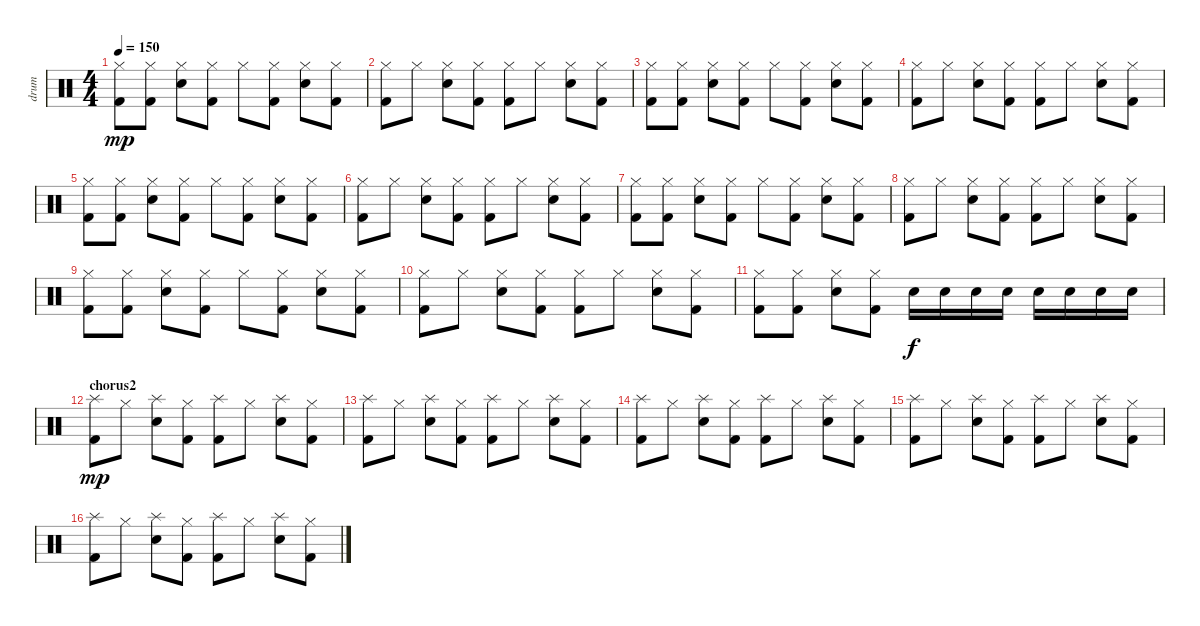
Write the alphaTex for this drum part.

\track ("drum" "drum") {instrument percussion}
\staff {score}
\articulation defaults
\ts (4 4)
\tempo 150
\clef neutral
\ks c
("Hi-Hat (closed)" "Kick (hit) 2").8{dy mp} ("Hi-Hat (closed)" "Kick (hit) 2").8 ("Hi-Hat (closed)" "Electric Snare (hit)").8 ("Hi-Hat (closed)" "Kick (hit) 2").8 "Hi-Hat (closed)".8 ("Hi-Hat (closed)" "Kick (hit) 2").8 ("Hi-Hat (closed)" "Electric Snare (hit)").8 ("Hi-Hat (closed)" "Kick (hit) 2").8 |
("Hi-Hat (closed)" "Kick (hit) 2").8 "Hi-Hat (closed)".8 ("Hi-Hat (closed)" "Electric Snare (hit)").8 ("Hi-Hat (closed)" "Kick (hit) 2").8 ("Hi-Hat (closed)" "Kick (hit) 2").8 "Hi-Hat (closed)".8 ("Hi-Hat (closed)" "Electric Snare (hit)").8 ("Hi-Hat (closed)" "Kick (hit) 2").8 |
("Hi-Hat (closed)" "Kick (hit) 2").8 ("Hi-Hat (closed)" "Kick (hit) 2").8 ("Hi-Hat (closed)" "Electric Snare (hit)").8 ("Hi-Hat (closed)" "Kick (hit) 2").8 "Hi-Hat (closed)".8 ("Hi-Hat (closed)" "Kick (hit) 2").8 ("Hi-Hat (closed)" "Electric Snare (hit)").8 ("Hi-Hat (closed)" "Kick (hit) 2").8 |
("Hi-Hat (closed)" "Kick (hit) 2").8 "Hi-Hat (closed)".8 ("Hi-Hat (closed)" "Electric Snare (hit)").8 ("Hi-Hat (closed)" "Kick (hit) 2").8 ("Hi-Hat (closed)" "Kick (hit) 2").8 "Hi-Hat (closed)".8 ("Hi-Hat (closed)" "Electric Snare (hit)").8 ("Hi-Hat (closed)" "Kick (hit) 2").8 |
("Hi-Hat (closed)" "Kick (hit) 2").8 ("Hi-Hat (closed)" "Kick (hit) 2").8 ("Hi-Hat (closed)" "Electric Snare (hit)").8 ("Hi-Hat (closed)" "Kick (hit) 2").8 "Hi-Hat (closed)".8 ("Hi-Hat (closed)" "Kick (hit) 2").8 ("Hi-Hat (closed)" "Electric Snare (hit)").8 ("Hi-Hat (closed)" "Kick (hit) 2").8 |
("Hi-Hat (closed)" "Kick (hit) 2").8 "Hi-Hat (closed)".8 ("Hi-Hat (closed)" "Electric Snare (hit)").8 ("Hi-Hat (closed)" "Kick (hit) 2").8 ("Hi-Hat (closed)" "Kick (hit) 2").8 "Hi-Hat (closed)".8 ("Hi-Hat (closed)" "Electric Snare (hit)").8 ("Hi-Hat (closed)" "Kick (hit) 2").8 |
("Hi-Hat (closed)" "Kick (hit) 2").8 ("Hi-Hat (closed)" "Kick (hit) 2").8 ("Hi-Hat (closed)" "Electric Snare (hit)").8 ("Hi-Hat (closed)" "Kick (hit) 2").8 "Hi-Hat (closed)".8 ("Hi-Hat (closed)" "Kick (hit) 2").8 ("Hi-Hat (closed)" "Electric Snare (hit)").8 ("Hi-Hat (closed)" "Kick (hit) 2").8 |
("Hi-Hat (closed)" "Kick (hit) 2").8 "Hi-Hat (closed)".8 ("Hi-Hat (closed)" "Electric Snare (hit)").8 ("Hi-Hat (closed)" "Kick (hit) 2").8 ("Hi-Hat (closed)" "Kick (hit) 2").8 "Hi-Hat (closed)".8 ("Hi-Hat (closed)" "Electric Snare (hit)").8 ("Hi-Hat (closed)" "Kick (hit) 2").8 |
("Hi-Hat (closed)" "Kick (hit) 2").8 ("Hi-Hat (closed)" "Kick (hit) 2").8 ("Hi-Hat (closed)" "Electric Snare (hit)").8 ("Hi-Hat (closed)" "Kick (hit) 2").8 "Hi-Hat (closed)".8 ("Hi-Hat (closed)" "Kick (hit) 2").8 ("Hi-Hat (closed)" "Electric Snare (hit)").8 ("Hi-Hat (closed)" "Kick (hit) 2").8 |
("Hi-Hat (closed)" "Kick (hit) 2").8 "Hi-Hat (closed)".8 ("Hi-Hat (closed)" "Electric Snare (hit)").8 ("Hi-Hat (closed)" "Kick (hit) 2").8 ("Hi-Hat (closed)" "Kick (hit) 2").8 "Hi-Hat (closed)".8 ("Hi-Hat (closed)" "Electric Snare (hit)").8 ("Hi-Hat (closed)" "Kick (hit) 2").8 |
("Hi-Hat (closed)" "Kick (hit) 2").8 ("Hi-Hat (closed)" "Kick (hit) 2").8 ("Hi-Hat (closed)" "Electric Snare (hit)").8 ("Hi-Hat (closed)" "Kick (hit) 2").8 "Electric Snare (hit)".16{dy f} "Electric Snare (hit)".16 "Electric Snare (hit)".16 "Electric Snare (hit)".16 "Electric Snare (hit)".16 "Electric Snare (hit)".16 "Electric Snare (hit)".16 "Electric Snare (hit)".16 |
\section ("" "chorus2")
("Splash (hit)" "Kick (hit) 2").8{dy mp} "Hi-Hat (closed)".8 ("Splash (hit)" "Electric Snare (hit)").8 ("Hi-Hat (closed)" "Kick (hit) 2").8 ("Splash (hit)" "Kick (hit) 2").8 "Hi-Hat (closed)".8 ("Splash (hit)" "Electric Snare (hit)").8 ("Hi-Hat (closed)" "Kick (hit) 2").8 |
("Splash (hit)" "Kick (hit) 2").8 "Hi-Hat (closed)".8 ("Splash (hit)" "Electric Snare (hit)").8 ("Hi-Hat (closed)" "Kick (hit) 2").8 ("Splash (hit)" "Kick (hit) 2").8 "Hi-Hat (closed)".8 ("Splash (hit)" "Electric Snare (hit)").8 ("Hi-Hat (closed)" "Kick (hit) 2").8 |
("Splash (hit)" "Kick (hit) 2").8 "Hi-Hat (closed)".8 ("Splash (hit)" "Electric Snare (hit)").8 ("Hi-Hat (closed)" "Kick (hit) 2").8 ("Splash (hit)" "Kick (hit) 2").8 "Hi-Hat (closed)".8 ("Splash (hit)" "Electric Snare (hit)").8 ("Hi-Hat (closed)" "Kick (hit) 2").8 |
("Splash (hit)" "Kick (hit) 2").8 "Hi-Hat (closed)".8 ("Splash (hit)" "Electric Snare (hit)").8 ("Hi-Hat (closed)" "Kick (hit) 2").8 ("Splash (hit)" "Kick (hit) 2").8 "Hi-Hat (closed)".8 ("Splash (hit)" "Electric Snare (hit)").8 ("Hi-Hat (closed)" "Kick (hit) 2").8 |
("Splash (hit)" "Kick (hit) 2").8 "Hi-Hat (closed)".8 ("Splash (hit)" "Electric Snare (hit)").8 ("Hi-Hat (closed)" "Kick (hit) 2").8 ("Splash (hit)" "Kick (hit) 2").8 "Hi-Hat (closed)".8 ("Splash (hit)" "Electric Snare (hit)").8 ("Hi-Hat (closed)" "Kick (hit) 2").8
